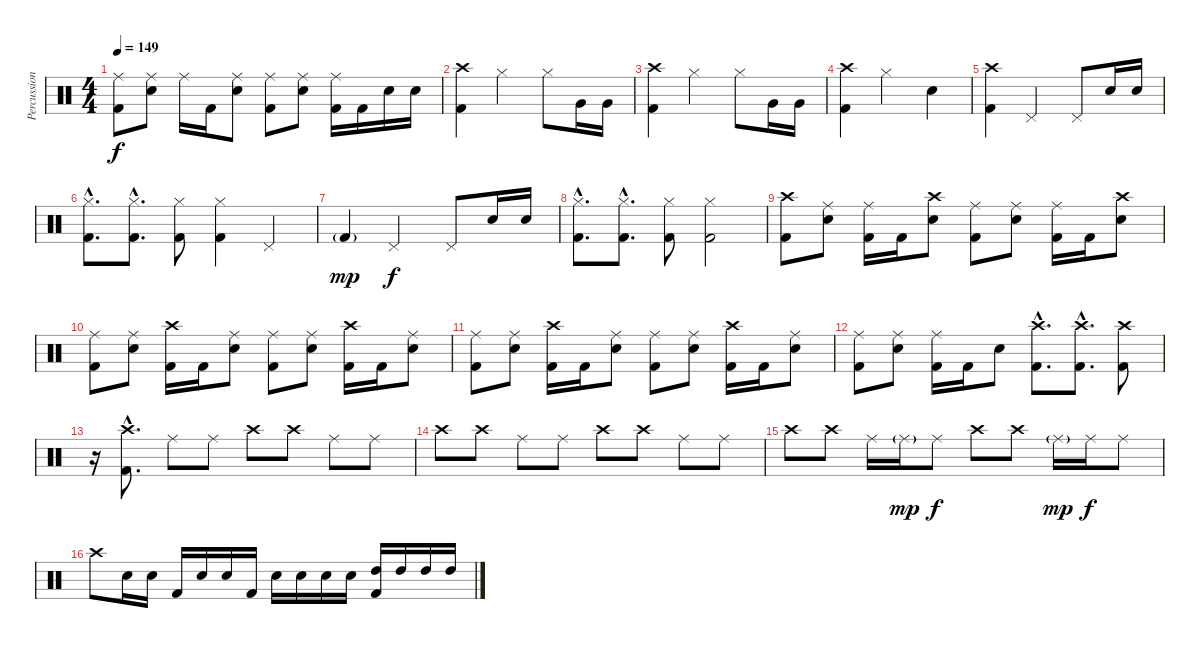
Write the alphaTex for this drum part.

\track ("Percussion" "Percussion") {instrument percussion}
\staff {score}
\articulation defaults
\ts (4 4)
\tempo 149
\clef neutral
\ks c
("Ride (middle)" "Kick (hit) 2").8{dy f} ("Ride (middle)" "Snare (hit) 2").8 "Ride (middle)".16 "Kick (hit) 2".16 ("Ride (middle)" "Snare (hit) 2").8 ("Ride (middle)" "Kick (hit) 2").8 ("Ride (middle)" "Snare (hit) 2").8 ("Ride (middle)" "Kick (hit) 2").16 "Kick (hit) 2".16 "Snare (hit) 2".16 "Snare (hit) 2".16 |
("Crash high (hit)" "Kick (hit) 2").4 "Hi-Hat (closed)".2 "Hi-Hat (closed)".8 "Very Low Tom (hit)".16 "Very Low Tom (hit)".16 |
("Crash high (hit)" "Kick (hit) 2").4 "Hi-Hat (closed)".2 "Hi-Hat (closed)".8 "Very Low Tom (hit)".16 "Very Low Tom (hit)".16 |
("Crash high (hit)" "Kick (hit) 2").4 "Hi-Hat (closed)".2 "Snare (hit) 2".4 |
("Crash high (hit)" "Kick (hit) 2").4 "Pedal Hi-Hat (hit)".2 "Pedal Hi-Hat (hit)".8 "Snare (hit) 2".16 "Snare (hit) 2".16 |
("Hi-Hat (closed)"{hac} "Kick (hit) 2"{hac}).8{d} ("Hi-Hat (closed)"{hac} "Kick (hit) 2"{hac}).8{d} ("Hi-Hat (closed)" "Kick (hit) 2").8 ("Hi-Hat (closed)" "Kick (hit) 2").4 "Pedal Hi-Hat (hit)".4 |
"Kick (hit) 2"{g}.4{dy mp} "Pedal Hi-Hat (hit)".2{dy f} "Pedal Hi-Hat (hit)".8 "Snare (hit) 2".16 "Snare (hit) 2".16 |
("Hi-Hat (closed)"{hac} "Kick (hit) 2"{hac}).8{d} ("Hi-Hat (closed)"{hac} "Kick (hit) 2"{hac}).8{d} ("Hi-Hat (closed)" "Kick (hit) 2").8 ("Hi-Hat (closed)" "Kick (hit) 2").2 |
("Crash high (hit)" "Kick (hit) 2").8 ("Ride (middle)" "Snare (hit) 2").8 ("Ride (middle)" "Kick (hit) 2").16 "Kick (hit) 2".16 ("Crash high (hit)" "Snare (hit) 2").8 ("Ride (middle)" "Kick (hit) 2").8 ("Ride (middle)" "Snare (hit) 2").8 ("Ride (middle)" "Kick (hit) 2").16 "Kick (hit) 2".16 ("Crash high (hit)" "Snare (hit) 2").8 |
("Ride (middle)" "Kick (hit) 2").8 ("Ride (middle)" "Snare (hit) 2").8 ("Crash high (hit)" "Kick (hit) 2").16 "Kick (hit) 2".16 ("Ride (middle)" "Snare (hit) 2").8 ("Ride (middle)" "Kick (hit) 2").8 ("Ride (middle)" "Snare (hit) 2").8 ("Crash high (hit)" "Kick (hit) 2").16 "Kick (hit) 2".16 ("Ride (middle)" "Snare (hit) 2").8 |
("Ride (middle)" "Kick (hit) 2").8 ("Ride (middle)" "Snare (hit) 2").8 ("Crash high (hit)" "Kick (hit) 2").16 "Kick (hit) 2".16 ("Ride (middle)" "Snare (hit) 2").8 ("Ride (middle)" "Kick (hit) 2").8 ("Ride (middle)" "Snare (hit) 2").8 ("Crash high (hit)" "Kick (hit) 2").16 "Kick (hit) 2".16 ("Ride (middle)" "Snare (hit) 2").8 |
("Ride (middle)" "Kick (hit) 2").8 ("Ride (middle)" "Snare (hit) 2").8 ("Ride (middle)" "Kick (hit) 2").16 "Kick (hit) 2".16 "Snare (hit) 2".8 ("Crash high (hit)"{hac} "Kick (hit) 2"{hac}).8{d} ("Crash high (hit)"{hac} "Kick (hit) 2"{hac}).8{d} ("Crash high (hit)" "Kick (hit) 2").8 |
r.16 ("Crash high (hit)"{hac} "Kick (hit) 2"{hac}).8{d} "Ride (middle)".8 "Ride (middle)".8 "Crash high (hit)".8 "Crash high (hit)".8 "Ride (middle)".8 "Ride (middle)".8 |
"Crash high (hit)".8 "Crash high (hit)".8 "Ride (middle)".8 "Ride (middle)".8 "Crash high (hit)".8 "Crash high (hit)".8 "Ride (middle)".8 "Ride (middle)".8 |
"Crash high (hit)".8 "Crash high (hit)".8 "Ride (middle)".16 "Ride (middle)"{g}.16{dy mp} "Ride (middle)".8{dy f} "Crash high (hit)".8 "Crash high (hit)".8 "Ride (middle)"{g}.16{dy mp} "Ride (middle)".16{dy f} "Ride (middle)".8 |
"Crash high (hit)".8 "Snare (hit) 2".16 "Snare (hit) 2".16 "Kick (hit) 2".16 "Snare (hit) 2".16 "Snare (hit) 2".16 "Kick (hit) 2".16 "Snare (hit) 2".16 "Snare (hit) 2".16 "Snare (hit) 2".16 "Snare (hit) 2".16 ("High Tom (hit)" "Kick (hit) 2").16 "High Tom (hit)".16 "High Tom (hit)".16 "High Tom (hit)".16
